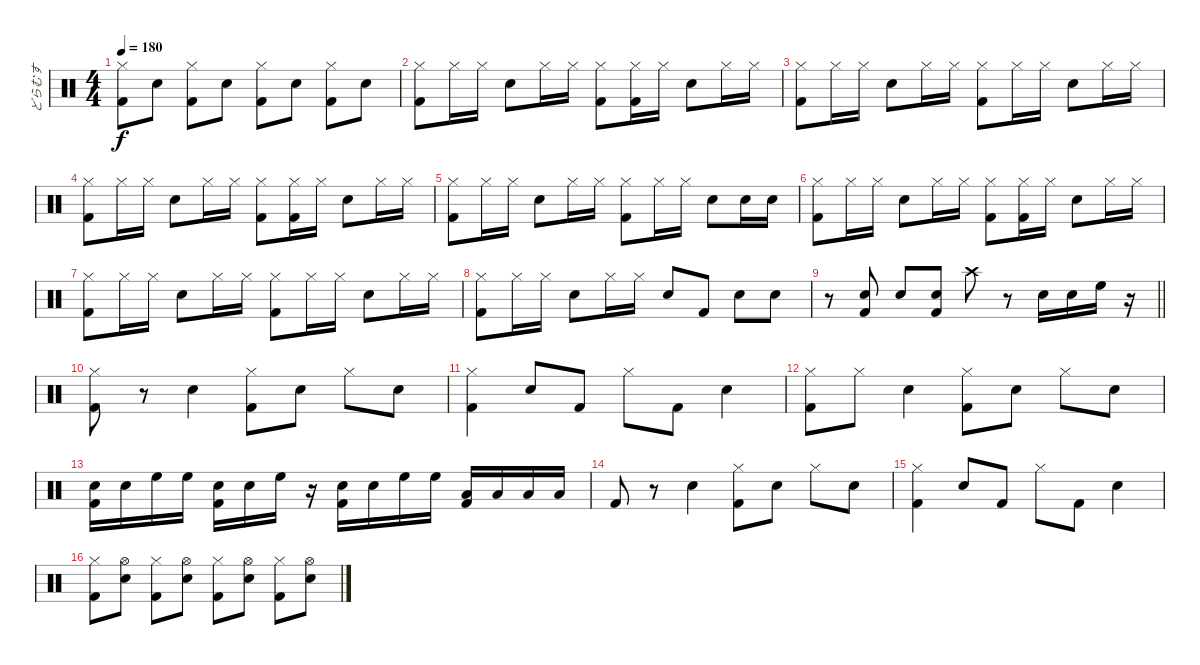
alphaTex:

\track ("どらむす" "どらむす") {instrument percussion}
\staff {score}
\articulation defaults
\ts (4 4)
\tempo 180
\clef neutral
\ks c
("Hi-Hat (closed)" "Kick (hit) 2").8{dy f} "Electric Snare (hit)".8 ("Hi-Hat (closed)" "Kick (hit) 2").8 "Electric Snare (hit)".8 ("Hi-Hat (closed)" "Kick (hit) 2").8 "Electric Snare (hit)".8 ("Hi-Hat (closed)" "Kick (hit) 2").8 "Electric Snare (hit)".8 |
("Hi-Hat (closed)" "Kick (hit) 2").8 "Hi-Hat (closed)".16 "Hi-Hat (closed)".16 "Electric Snare (hit)".8 "Hi-Hat (closed)".16 "Hi-Hat (closed)".16 ("Hi-Hat (closed)" "Kick (hit) 2").8 ("Hi-Hat (closed)" "Kick (hit) 2").16 "Hi-Hat (closed)".16 "Electric Snare (hit)".8 "Hi-Hat (closed)".16 "Hi-Hat (closed)".16 |
("Hi-Hat (closed)" "Kick (hit) 2").8 "Hi-Hat (closed)".16 "Hi-Hat (closed)".16 "Electric Snare (hit)".8 "Hi-Hat (closed)".16 "Hi-Hat (closed)".16 ("Hi-Hat (closed)" "Kick (hit) 2").8 "Hi-Hat (closed)".16 "Hi-Hat (closed)".16 "Electric Snare (hit)".8 "Hi-Hat (closed)".16 "Hi-Hat (closed)".16 |
("Hi-Hat (closed)" "Kick (hit) 2").8 "Hi-Hat (closed)".16 "Hi-Hat (closed)".16 "Electric Snare (hit)".8 "Hi-Hat (closed)".16 "Hi-Hat (closed)".16 ("Hi-Hat (closed)" "Kick (hit) 2").8 ("Hi-Hat (closed)" "Kick (hit) 2").16 "Hi-Hat (closed)".16 "Electric Snare (hit)".8 "Hi-Hat (closed)".16 "Hi-Hat (closed)".16 |
("Hi-Hat (closed)" "Kick (hit) 2").8 "Hi-Hat (closed)".16 "Hi-Hat (closed)".16 "Electric Snare (hit)".8 "Hi-Hat (closed)".16 "Hi-Hat (closed)".16 ("Hi-Hat (closed)" "Kick (hit) 2").8 "Hi-Hat (closed)".16 "Hi-Hat (closed)".16 "Electric Snare (hit)".8 "Electric Snare (hit)".16 "Electric Snare (hit)".16 |
("Hi-Hat (closed)" "Kick (hit) 2").8 "Hi-Hat (closed)".16 "Hi-Hat (closed)".16 "Electric Snare (hit)".8 "Hi-Hat (closed)".16 "Hi-Hat (closed)".16 ("Hi-Hat (closed)" "Kick (hit) 2").8 ("Hi-Hat (closed)" "Kick (hit) 2").16 "Hi-Hat (closed)".16 "Electric Snare (hit)".8 "Hi-Hat (closed)".16 "Hi-Hat (closed)".16 |
("Hi-Hat (closed)" "Kick (hit) 2").8 "Hi-Hat (closed)".16 "Hi-Hat (closed)".16 "Electric Snare (hit)".8 "Hi-Hat (closed)".16 "Hi-Hat (closed)".16 ("Hi-Hat (closed)" "Kick (hit) 2").8 "Hi-Hat (closed)".16 "Hi-Hat (closed)".16 "Electric Snare (hit)".8 "Hi-Hat (closed)".16 "Hi-Hat (closed)".16 |
("Hi-Hat (closed)" "Kick (hit) 2").8 "Hi-Hat (closed)".16 "Hi-Hat (closed)".16 "Electric Snare (hit)".8 "Hi-Hat (closed)".16 "Hi-Hat (closed)".16 "Electric Snare (hit)".8 "Kick (hit) 2".8 "Electric Snare (hit)".8 "Electric Snare (hit)".8 |
\barLineRight lightlight
r.8 ("Electric Snare (hit)" "Kick (hit) 2").8 "Electric Snare (hit)".8 ("Electric Snare (hit)" "Kick (hit) 2").8 "Crash high (hit)".8 r.8 "Electric Snare (hit)".16 "Electric Snare (hit)".16 "High Floor Tom (hit)".16 r.16 |
("Hi-Hat (closed)" "Kick (hit) 2").8 r.8 "Electric Snare (hit)".4 ("Hi-Hat (closed)" "Kick (hit) 2").8 "Electric Snare (hit)".8 "Hi-Hat (closed)".8 "Electric Snare (hit)".8 |
("Hi-Hat (closed)" "Kick (hit) 2").4 "Electric Snare (hit)".8 "Kick (hit) 2".8 "Hi-Hat (closed)".8 "Kick (hit) 2".8 "Electric Snare (hit)".4 |
("Hi-Hat (closed)" "Kick (hit) 2").8 "Hi-Hat (closed)".8 "Electric Snare (hit)".4 ("Hi-Hat (closed)" "Kick (hit) 2").8 "Electric Snare (hit)".8 "Hi-Hat (closed)".8 "Electric Snare (hit)".8 |
("Electric Snare (hit)" "Kick (hit) 2").16 "Electric Snare (hit)".16 "High Floor Tom (hit)".16 "High Floor Tom (hit)".16 ("Electric Snare (hit)" "Kick (hit) 2").16 "Electric Snare (hit)".16 "High Floor Tom (hit)".16 r.16 ("Electric Snare (hit)" "Kick (hit) 2").16 "Electric Snare (hit)".16 "High Floor Tom (hit)".16 "High Floor Tom (hit)".16 ("Low Tom (hit)" "Kick (hit) 2").16 "Low Tom (hit)".16 "Low Floor Tom (hit)".16 "Low Floor Tom (hit)".16 |
"Kick (hit) 2".8 r.8 "Electric Snare (hit)".4 ("Hi-Hat (closed)" "Kick (hit) 2").8 "Electric Snare (hit)".8 "Hi-Hat (closed)".8 "Electric Snare (hit)".8 |
("Hi-Hat (closed)" "Kick (hit) 2").4 "Electric Snare (hit)".8 "Kick (hit) 2".8 "Hi-Hat (closed)".8 "Kick (hit) 2".8 "Electric Snare (hit)".4 |
("Hi-Hat (closed)" "Kick (hit) 2").8 ("Hi-Hat (open)" "Electric Snare (hit)").8 ("Hi-Hat (closed)" "Kick (hit) 2").8 ("Hi-Hat (open)" "Electric Snare (hit)").8 ("Hi-Hat (closed)" "Kick (hit) 2").8 ("Hi-Hat (open)" "Electric Snare (hit)").8 ("Hi-Hat (closed)" "Kick (hit) 2").8 ("Hi-Hat (open)" "Electric Snare (hit)").8
